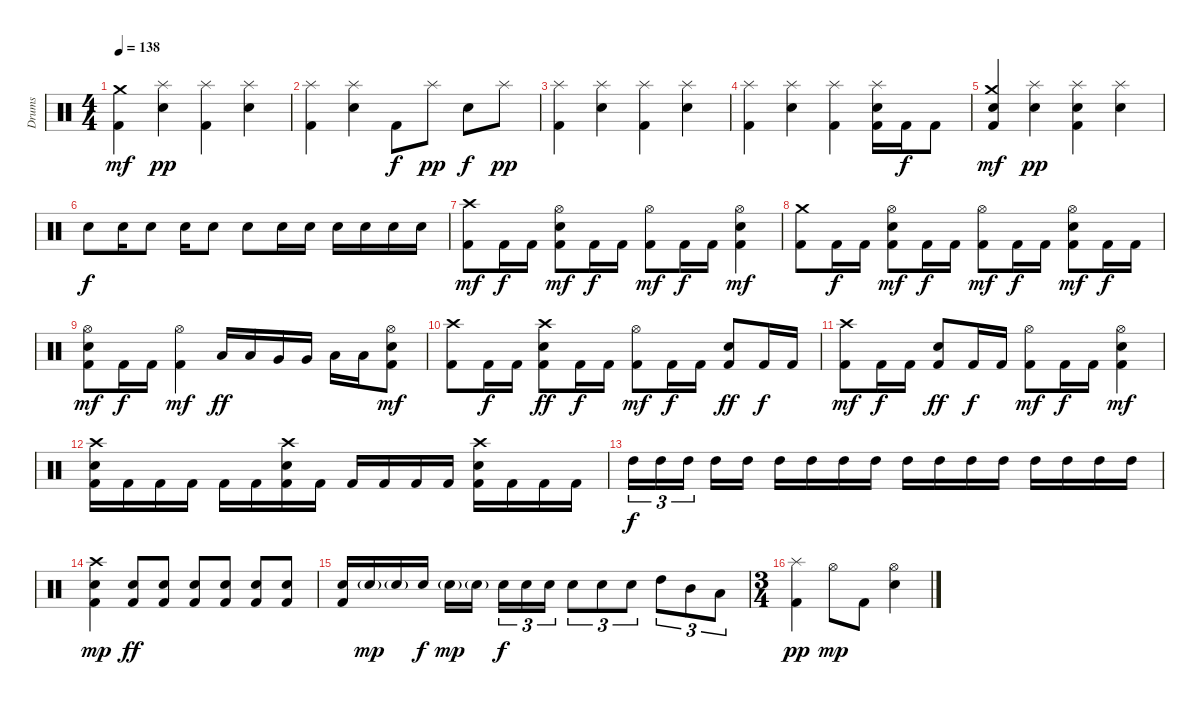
\track ("Drums" "Drums") {instrument percussion}
\staff {score}
\articulation defaults
\ts (4 4)
\tempo 138
\clef neutral
\ks c
("Kick (hit) 2" "Crash medium (hit)").4{dy mf} ("Electric Snare (hit)" "Splash (hit)").4{dy pp} ("Kick (hit) 2" "Splash (hit)").4 ("Electric Snare (hit)" "Splash (hit)").4 |
("Kick (hit) 2" "Splash (hit)").4 ("Electric Snare (hit)" "Splash (hit)").4 "Kick (hit) 2".8{dy f} "Splash (hit)".8{dy pp} "Electric Snare (hit)".8{dy f} "Splash (hit)".8{dy pp} |
("Kick (hit) 2" "Splash (hit)").4 ("Electric Snare (hit)" "Splash (hit)").4 ("Kick (hit) 2" "Splash (hit)").4 ("Electric Snare (hit)" "Splash (hit)").4 |
("Kick (hit) 2" "Splash (hit)").4 ("Electric Snare (hit)" "Splash (hit)").4 ("Kick (hit) 2" "Splash (hit)").4 ("Kick (hit) 2" "Electric Snare (hit)" "Splash (hit)").16 "Kick (hit) 2".16{dy f} "Kick (hit) 2".8 |
("Kick (hit) 2" "Electric Snare (hit)" "Crash medium (hit)").4{dy mf} ("Electric Snare (hit)" "Splash (hit)").4{dy pp} ("Kick (hit) 2" "Electric Snare (hit)" "Splash (hit)").4 ("Electric Snare (hit)" "Splash (hit)").4 |
"Electric Snare (hit)".8{dy f} "Electric Snare (hit)".16 "Electric Snare (hit)".8 "Electric Snare (hit)".16 "Electric Snare (hit)".8 "Electric Snare (hit)".8 "Electric Snare (hit)".16 "Electric Snare (hit)".16 "Electric Snare (hit)".16 "Electric Snare (hit)".16 "Electric Snare (hit)".16 "Electric Snare (hit)".16 |
("Kick (hit) 2" "Crash high (hit)").8{dy mf} "Kick (hit) 2".16{dy f} "Kick (hit) 2".16 ("Kick (hit) 2" "Electric Snare (hit)" "Hi-Hat (open)").8{dy mf} "Kick (hit) 2".16{dy f} "Kick (hit) 2".16 ("Kick (hit) 2" "Hi-Hat (open)").8{dy mf} "Kick (hit) 2".16{dy f} "Kick (hit) 2".16 ("Kick (hit) 2" "Electric Snare (hit)" "Hi-Hat (open)").4{dy mf} |
("Kick (hit) 2" "Crash medium (hit)").8 "Kick (hit) 2".16{dy f} "Kick (hit) 2".16 ("Kick (hit) 2" "Electric Snare (hit)" "Hi-Hat (open)").8{dy mf} "Kick (hit) 2".16{dy f} "Kick (hit) 2".16 ("Kick (hit) 2" "Hi-Hat (open)").8{dy mf} "Kick (hit) 2".16{dy f} "Kick (hit) 2".16 ("Kick (hit) 2" "Electric Snare (hit)" "Hi-Hat (open)").8{dy mf} "Kick (hit) 2".16{dy f} "Kick (hit) 2".16 |
("Kick (hit) 2" "Electric Snare (hit)" "Hi-Hat (open)").8{dy mf} "Kick (hit) 2".16{dy f} "Kick (hit) 2".16 ("Kick (hit) 2" "Hi-Hat (open)").4{dy mf} "Low Tom (hit)".16{dy ff} "Low Tom (hit)".16 "Very Low Tom (hit)".16 "Very Low Tom (hit)".16 "Low Floor Tom (hit)".16 "Low Floor Tom (hit)".16 ("Kick (hit) 2" "Electric Snare (hit)" "Hi-Hat (open)").8{dy mf} |
("Kick (hit) 2" "Crash high (hit)").8 "Kick (hit) 2".16{dy f} "Kick (hit) 2".16 ("Kick (hit) 2" "Electric Snare (hit)" "Crash high (hit)").8{dy ff} "Kick (hit) 2".16{dy f} "Kick (hit) 2".16 ("Kick (hit) 2" "Hi-Hat (open)").8{dy mf} "Kick (hit) 2".16{dy f} "Kick (hit) 2".16 ("Kick (hit) 2" "Electric Snare (hit)").8{dy ff} "Kick (hit) 2".16{dy f} "Kick (hit) 2".16 |
("Kick (hit) 2" "Crash high (hit)").8{dy mf} "Kick (hit) 2".16{dy f} "Kick (hit) 2".16 ("Kick (hit) 2" "Electric Snare (hit)").8{dy ff} "Kick (hit) 2".16{dy f} "Kick (hit) 2".16 ("Kick (hit) 2" "Hi-Hat (open)").8{dy mf} "Kick (hit) 2".16{dy f} "Kick (hit) 2".16 ("Kick (hit) 2" "Electric Snare (hit)" "Hi-Hat (open)").4{dy mf} |
("Kick (hit) 2" "Electric Snare (hit)" "Crash high (hit)").16 "Kick (hit) 2".16 "Kick (hit) 2".16 "Kick (hit) 2".16 "Kick (hit) 2".16 "Kick (hit) 2".16 ("Kick (hit) 2" "Electric Snare (hit)" "Crash high (hit)").16 "Kick (hit) 2".16 "Kick (hit) 2".16 "Kick (hit) 2".16 "Kick (hit) 2".16 "Kick (hit) 2".16 ("Kick (hit) 2" "Electric Snare (hit)" "Crash high (hit)").16 "Kick (hit) 2".16 "Kick (hit) 2".16 "Kick (hit) 2".16 |
"High Tom (hit)".16{tu (3 2) dy f} "High Tom (hit)".16{tu (3 2)} "High Tom (hit)".16{tu (3 2) beam splitsecondary} "High Tom (hit)".16 "High Tom (hit)".16 "High Tom (hit)".16 "High Tom (hit)".16 "High Tom (hit)".16 "High Tom (hit)".16 "High Tom (hit)".16 "High Tom (hit)".16 "High Tom (hit)".16 "High Tom (hit)".16 "High Tom (hit)".16 "High Tom (hit)".16 "High Tom (hit)".16 "High Tom (hit)".16 |
("Kick (hit) 2" "Electric Snare (hit)" "Crash high (hit)").4{dy mp} ("Kick (hit) 2" "Electric Snare (hit)").8{dy ff} ("Kick (hit) 2" "Electric Snare (hit)").8 ("Kick (hit) 2" "Electric Snare (hit)").8 ("Kick (hit) 2" "Electric Snare (hit)").8 ("Kick (hit) 2" "Electric Snare (hit)").8 ("Kick (hit) 2" "Electric Snare (hit)").8 |
("Kick (hit) 2" "Electric Snare (hit)").16 "Electric Snare (hit)"{g}.16{dy mp} "Electric Snare (hit)"{g}.16 "Electric Snare (hit)".16{dy f} "Electric Snare (hit)"{g}.16{dy mp} "Electric Snare (hit)"{g}.16{beam splitsecondary} "Electric Snare (hit)".16{tu (3 2) dy f} "Electric Snare (hit)".16{tu (3 2)} "Electric Snare (hit)".16{tu (3 2)} "Electric Snare (hit)".8{tu (3 2)} "Electric Snare (hit)".8{tu (3 2)} "Electric Snare (hit)".8{tu (3 2)} "High Tom (hit)".8{tu (3 2)} "Mid Tom (hit)".8{tu (3 2)} "Low Tom (hit)".8{tu (3 2)} |
\ts (3 4)
("Kick (hit) 2" "Splash (hit)").4{dy pp} "Hi-Hat (open)".8{dy mp} "Kick (hit) 2".8 ("Electric Snare (hit)" "Hi-Hat (open)").4
